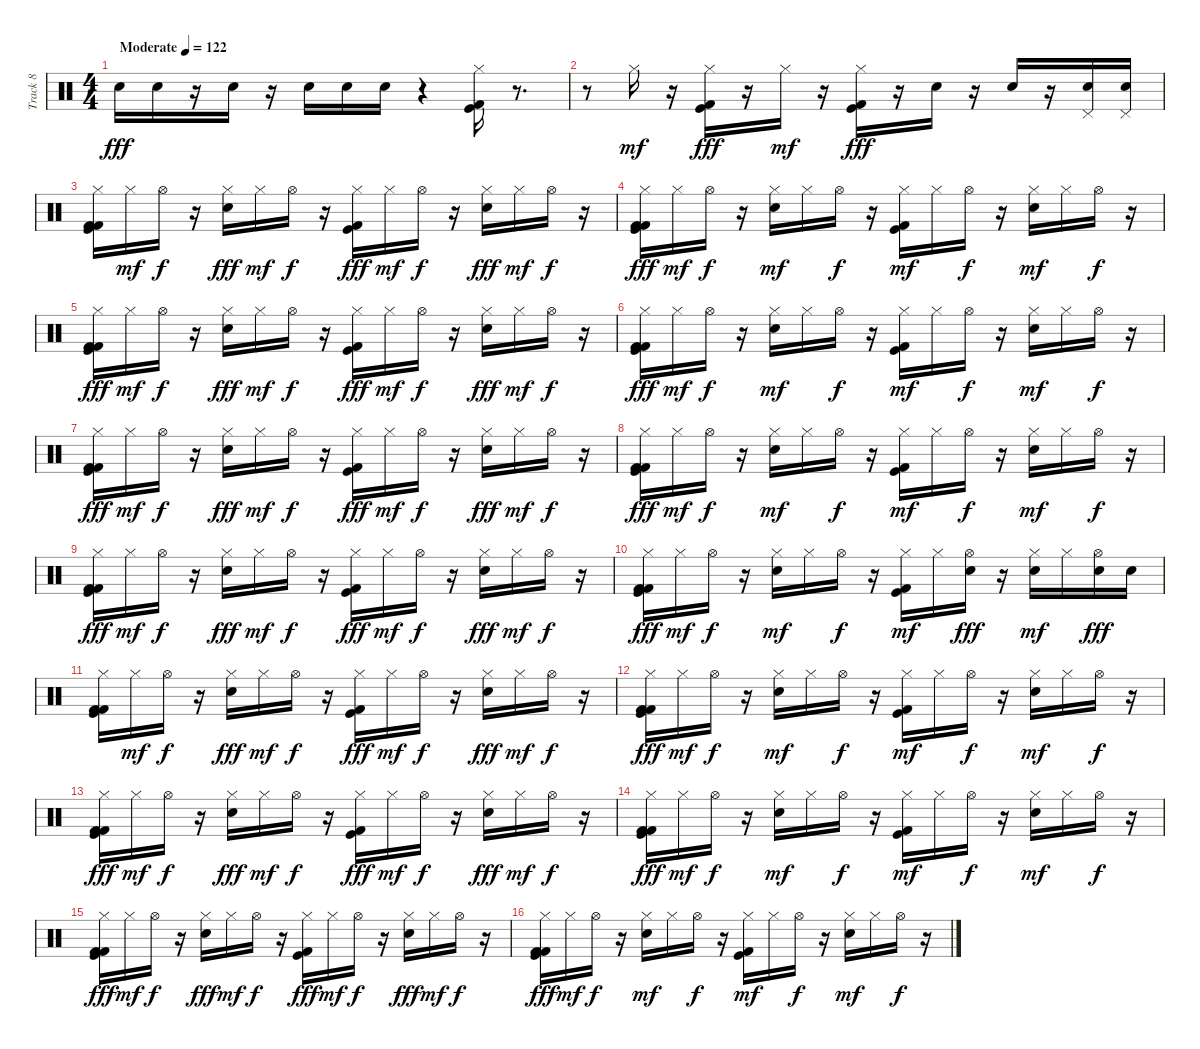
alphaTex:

\track ("Track 8" "Track 8") {instrument percussion}
\staff {score}
\articulation defaults
\ts (4 4)
\tempo (122 "Moderate")
\clef neutral
\ks c "Electric Snare (hit)".16{dy fff} "Electric Snare (hit)".16
r.16 "Electric Snare (hit)".16 r.16 "Electric Snare (hit)".16 "Electric Snare (hit)".16 "Electric Snare (hit)".16 r.4 ("Hi-Hat (closed)" "Kick (hit) 2" "Kick (hit)").16 r.8{d} |
r.8 "Hi-Hat (closed)".16{dy mf} r.16 ("Hi-Hat (closed)" "Kick (hit)" "Kick (hit) 2").16{dy fff} r.16 "Hi-Hat (closed)".16{dy mf} r.16 ("Hi-Hat (closed)" "Kick (hit)" "Kick (hit) 2").16{dy fff} r.16 "Electric Snare (hit)".16 r.16 "Electric Snare (hit)".16 r.16 ("Pedal Hi-Hat (hit)" "Electric Snare (hit)").16 ("Pedal Hi-Hat (hit)" "Electric Snare (hit)").16 |
("Kick (hit) 2" "Hi-Hat (closed)" "Kick (hit)" "Kick (hit) 2").16 "Hi-Hat (closed)".16{dy mf} "Hi-Hat (open)".16{dy f} r.16 ("Hi-Hat (closed)" "Electric Snare (hit)").16{dy fff} "Hi-Hat (closed)".16{dy mf} "Hi-Hat (open)".16{dy f} r.16 ("Hi-Hat (closed)" "Kick (hit)" "Kick (hit) 2").16{dy fff} "Hi-Hat (closed)".16{dy mf} "Hi-Hat (open)".16{dy f} r.16 ("Hi-Hat (closed)" "Electric Snare (hit)").16{dy fff} "Hi-Hat (closed)".16{dy mf} "Hi-Hat (open)".16{dy f} r.16 |
("Kick (hit) 2" "Hi-Hat (closed)" "Kick (hit) 2" "Kick (hit)").16{dy fff} "Hi-Hat (closed)".16{dy mf} "Hi-Hat (open)".16{dy f} r.16 ("Electric Snare (hit)" "Hi-Hat (closed)").16{dy mf} "Hi-Hat (closed)".16 "Hi-Hat (open)".16{dy f} r.16 ("Kick (hit) 2" "Kick (hit)" "Hi-Hat (closed)").16{dy mf} "Hi-Hat (closed)".16 "Hi-Hat (open)".16{dy f} r.16 ("Electric Snare (hit)" "Hi-Hat (closed)").16{dy mf} "Hi-Hat (closed)".16 "Hi-Hat (open)".16{dy f} r.16 |
("Kick (hit) 2" "Hi-Hat (closed)" "Kick (hit) 2" "Kick (hit)").16{dy fff} "Hi-Hat (closed)".16{dy mf} "Hi-Hat (open)".16{dy f} r.16 ("Hi-Hat (closed)" "Electric Snare (hit)").16{dy fff} "Hi-Hat (closed)".16{dy mf} "Hi-Hat (open)".16{dy f} r.16 ("Hi-Hat (closed)" "Kick (hit)" "Kick (hit) 2").16{dy fff} "Hi-Hat (closed)".16{dy mf} "Hi-Hat (open)".16{dy f} r.16 ("Hi-Hat (closed)" "Electric Snare (hit)").16{dy fff} "Hi-Hat (closed)".16{dy mf} "Hi-Hat (open)".16{dy f} r.16 |
("Kick (hit) 2" "Hi-Hat (closed)" "Kick (hit) 2" "Kick (hit)").16{dy fff} "Hi-Hat (closed)".16{dy mf} "Hi-Hat (open)".16{dy f} r.16 ("Electric Snare (hit)" "Hi-Hat (closed)").16{dy mf} "Hi-Hat (closed)".16 "Hi-Hat (open)".16{dy f} r.16 ("Kick (hit) 2" "Kick (hit)" "Hi-Hat (closed)").16{dy mf} "Hi-Hat (closed)".16 "Hi-Hat (open)".16{dy f} r.16 ("Electric Snare (hit)" "Hi-Hat (closed)").16{dy mf} "Hi-Hat (closed)".16 "Hi-Hat (open)".16{dy f} r.16 |
("Kick (hit) 2" "Hi-Hat (closed)" "Kick (hit) 2" "Kick (hit)").16{dy fff} "Hi-Hat (closed)".16{dy mf} "Hi-Hat (open)".16{dy f} r.16 ("Hi-Hat (closed)" "Electric Snare (hit)").16{dy fff} "Hi-Hat (closed)".16{dy mf} "Hi-Hat (open)".16{dy f} r.16 ("Hi-Hat (closed)" "Kick (hit)" "Kick (hit) 2").16{dy fff} "Hi-Hat (closed)".16{dy mf} "Hi-Hat (open)".16{dy f} r.16 ("Hi-Hat (closed)" "Electric Snare (hit)").16{dy fff} "Hi-Hat (closed)".16{dy mf} "Hi-Hat (open)".16{dy f} r.16 |
("Kick (hit) 2" "Hi-Hat (closed)" "Kick (hit) 2" "Kick (hit)").16{dy fff} "Hi-Hat (closed)".16{dy mf} "Hi-Hat (open)".16{dy f} r.16 ("Electric Snare (hit)" "Hi-Hat (closed)").16{dy mf} "Hi-Hat (closed)".16 "Hi-Hat (open)".16{dy f} r.16 ("Kick (hit) 2" "Kick (hit)" "Hi-Hat (closed)").16{dy mf} "Hi-Hat (closed)".16 "Hi-Hat (open)".16{dy f} r.16 ("Electric Snare (hit)" "Hi-Hat (closed)").16{dy mf} "Hi-Hat (closed)".16 "Hi-Hat (open)".16{dy f} r.16 |
("Kick (hit) 2" "Hi-Hat (closed)" "Kick (hit) 2" "Kick (hit)").16{dy fff} "Hi-Hat (closed)".16{dy mf} "Hi-Hat (open)".16{dy f} r.16 ("Hi-Hat (closed)" "Electric Snare (hit)").16{dy fff} "Hi-Hat (closed)".16{dy mf} "Hi-Hat (open)".16{dy f} r.16 ("Hi-Hat (closed)" "Kick (hit)" "Kick (hit) 2").16{dy fff} "Hi-Hat (closed)".16{dy mf} "Hi-Hat (open)".16{dy f} r.16 ("Hi-Hat (closed)" "Electric Snare (hit)").16{dy fff} "Hi-Hat (closed)".16{dy mf} "Hi-Hat (open)".16{dy f} r.16 |
("Kick (hit) 2" "Hi-Hat (closed)" "Kick (hit) 2" "Kick (hit)").16{dy fff} "Hi-Hat (closed)".16{dy mf} "Hi-Hat (open)".16{dy f} r.16 ("Electric Snare (hit)" "Hi-Hat (closed)").16{dy mf} "Hi-Hat (closed)".16 "Hi-Hat (open)".16{dy f} r.16 ("Kick (hit) 2" "Kick (hit)" "Hi-Hat (closed)").16{dy mf} "Hi-Hat (closed)".16 ("Electric Snare (hit)" "Hi-Hat (open)").16{dy fff} r.16 ("Electric Snare (hit)" "Hi-Hat (closed)").16{dy mf} "Hi-Hat (closed)".16 ("Electric Snare (hit)" "Hi-Hat (open)").16{dy fff} "Electric Snare (hit)".16 |
("Kick (hit) 2" "Hi-Hat (closed)" "Kick (hit)" "Kick (hit) 2").16 "Hi-Hat (closed)".16{dy mf} "Hi-Hat (open)".16{dy f} r.16 ("Hi-Hat (closed)" "Electric Snare (hit)").16{dy fff} "Hi-Hat (closed)".16{dy mf} "Hi-Hat (open)".16{dy f} r.16 ("Hi-Hat (closed)" "Kick (hit)" "Kick (hit) 2").16{dy fff} "Hi-Hat (closed)".16{dy mf} "Hi-Hat (open)".16{dy f} r.16 ("Hi-Hat (closed)" "Electric Snare (hit)").16{dy fff} "Hi-Hat (closed)".16{dy mf} "Hi-Hat (open)".16{dy f} r.16 |
("Kick (hit) 2" "Hi-Hat (closed)" "Kick (hit) 2" "Kick (hit)").16{dy fff} "Hi-Hat (closed)".16{dy mf} "Hi-Hat (open)".16{dy f} r.16 ("Electric Snare (hit)" "Hi-Hat (closed)").16{dy mf} "Hi-Hat (closed)".16 "Hi-Hat (open)".16{dy f} r.16 ("Kick (hit) 2" "Kick (hit)" "Hi-Hat (closed)").16{dy mf} "Hi-Hat (closed)".16 "Hi-Hat (open)".16{dy f} r.16 ("Electric Snare (hit)" "Hi-Hat (closed)").16{dy mf} "Hi-Hat (closed)".16 "Hi-Hat (open)".16{dy f} r.16 |
("Kick (hit) 2" "Hi-Hat (closed)" "Kick (hit) 2" "Kick (hit)").16{dy fff} "Hi-Hat (closed)".16{dy mf} "Hi-Hat (open)".16{dy f} r.16 ("Hi-Hat (closed)" "Electric Snare (hit)").16{dy fff} "Hi-Hat (closed)".16{dy mf} "Hi-Hat (open)".16{dy f} r.16 ("Hi-Hat (closed)" "Kick (hit)" "Kick (hit) 2").16{dy fff} "Hi-Hat (closed)".16{dy mf} "Hi-Hat (open)".16{dy f} r.16 ("Hi-Hat (closed)" "Electric Snare (hit)").16{dy fff} "Hi-Hat (closed)".16{dy mf} "Hi-Hat (open)".16{dy f} r.16 |
("Kick (hit) 2" "Hi-Hat (closed)" "Kick (hit) 2" "Kick (hit)").16{dy fff} "Hi-Hat (closed)".16{dy mf} "Hi-Hat (open)".16{dy f} r.16 ("Electric Snare (hit)" "Hi-Hat (closed)").16{dy mf} "Hi-Hat (closed)".16 "Hi-Hat (open)".16{dy f} r.16 ("Kick (hit) 2" "Kick (hit)" "Hi-Hat (closed)").16{dy mf} "Hi-Hat (closed)".16 "Hi-Hat (open)".16{dy f} r.16 ("Electric Snare (hit)" "Hi-Hat (closed)").16{dy mf} "Hi-Hat (closed)".16 "Hi-Hat (open)".16{dy f} r.16 |
("Kick (hit) 2" "Hi-Hat (closed)" "Kick (hit) 2" "Kick (hit)").16{dy fff} "Hi-Hat (closed)".16{dy mf} "Hi-Hat (open)".16{dy f} r.16 ("Hi-Hat (closed)" "Electric Snare (hit)").16{dy fff} "Hi-Hat (closed)".16{dy mf} "Hi-Hat (open)".16{dy f} r.16 ("Hi-Hat (closed)" "Kick (hit)" "Kick (hit) 2").16{dy fff} "Hi-Hat (closed)".16{dy mf} "Hi-Hat (open)".16{dy f} r.16 ("Hi-Hat (closed)" "Electric Snare (hit)").16{dy fff} "Hi-Hat (closed)".16{dy mf} "Hi-Hat (open)".16{dy f} r.16 |
("Kick (hit) 2" "Hi-Hat (closed)" "Kick (hit) 2" "Kick (hit)").16{dy fff} "Hi-Hat (closed)".16{dy mf} "Hi-Hat (open)".16{dy f} r.16 ("Electric Snare (hit)" "Hi-Hat (closed)").16{dy mf} "Hi-Hat (closed)".16 "Hi-Hat (open)".16{dy f} r.16 ("Kick (hit) 2" "Kick (hit)" "Hi-Hat (closed)").16{dy mf} "Hi-Hat (closed)".16 "Hi-Hat (open)".16{dy f} r.16 ("Electric Snare (hit)" "Hi-Hat (closed)").16{dy mf} "Hi-Hat (closed)".16 "Hi-Hat (open)".16{dy f} r.16
